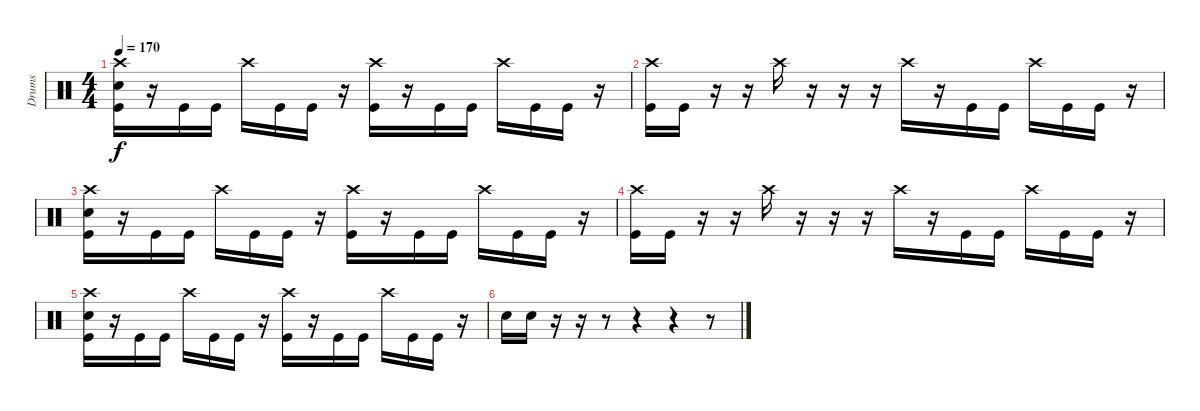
\track ("Drums" "Drums") {instrument percussion}
\staff {score}
\articulation defaults
\ts (4 4)
\tempo 170
\clef neutral
\ks c
("Kick (hit)" "Snare (hit) 2" "Crash high (hit)").16{dy f} r.16 "Kick (hit)".16 "Kick (hit)".16 "Crash high (hit)".16 "Kick (hit)".16 "Kick (hit)".16 r.16 ("Kick (hit)" "Crash high (hit)").16 r.16 "Kick (hit)".16 "Kick (hit)".16 "Crash high (hit)".16 "Kick (hit)".16 "Kick (hit)".16 r.16 |
("Kick (hit)" "Crash high (hit)").16 "Kick (hit)".16 r.16 r.16 "Crash high (hit)".16 r.16 r.16 r.16 "Crash high (hit)".16 r.16 "Kick (hit)".16 "Kick (hit)".16 "Crash high (hit)".16 "Kick (hit)".16 "Kick (hit)".16 r.16 |
("Kick (hit)" "Snare (hit) 2" "Crash high (hit)").16 r.16 "Kick (hit)".16 "Kick (hit)".16 "Crash high (hit)".16 "Kick (hit)".16 "Kick (hit)".16 r.16 ("Kick (hit)" "Crash high (hit)").16 r.16 "Kick (hit)".16 "Kick (hit)".16 "Crash high (hit)".16 "Kick (hit)".16 "Kick (hit)".16 r.16 |
("Kick (hit)" "Crash high (hit)").16 "Kick (hit)".16 r.16 r.16 "Crash high (hit)".16 r.16 r.16 r.16 "Crash high (hit)".16 r.16 "Kick (hit)".16 "Kick (hit)".16 "Crash high (hit)".16 "Kick (hit)".16 "Kick (hit)".16 r.16 |
("Kick (hit)" "Snare (hit) 2" "Crash high (hit)").16 r.16 "Kick (hit)".16 "Kick (hit)".16 "Crash high (hit)".16 "Kick (hit)".16 "Kick (hit)".16 r.16 ("Kick (hit)" "Crash high (hit)").16 r.16 "Kick (hit)".16 "Kick (hit)".16 "Crash high (hit)".16 "Kick (hit)".16 "Kick (hit)".16 r.16 |
"Snare (hit) 2".16 "Snare (hit) 2".16 r.16 r.16 r.8 r.4 r.4 r.8
